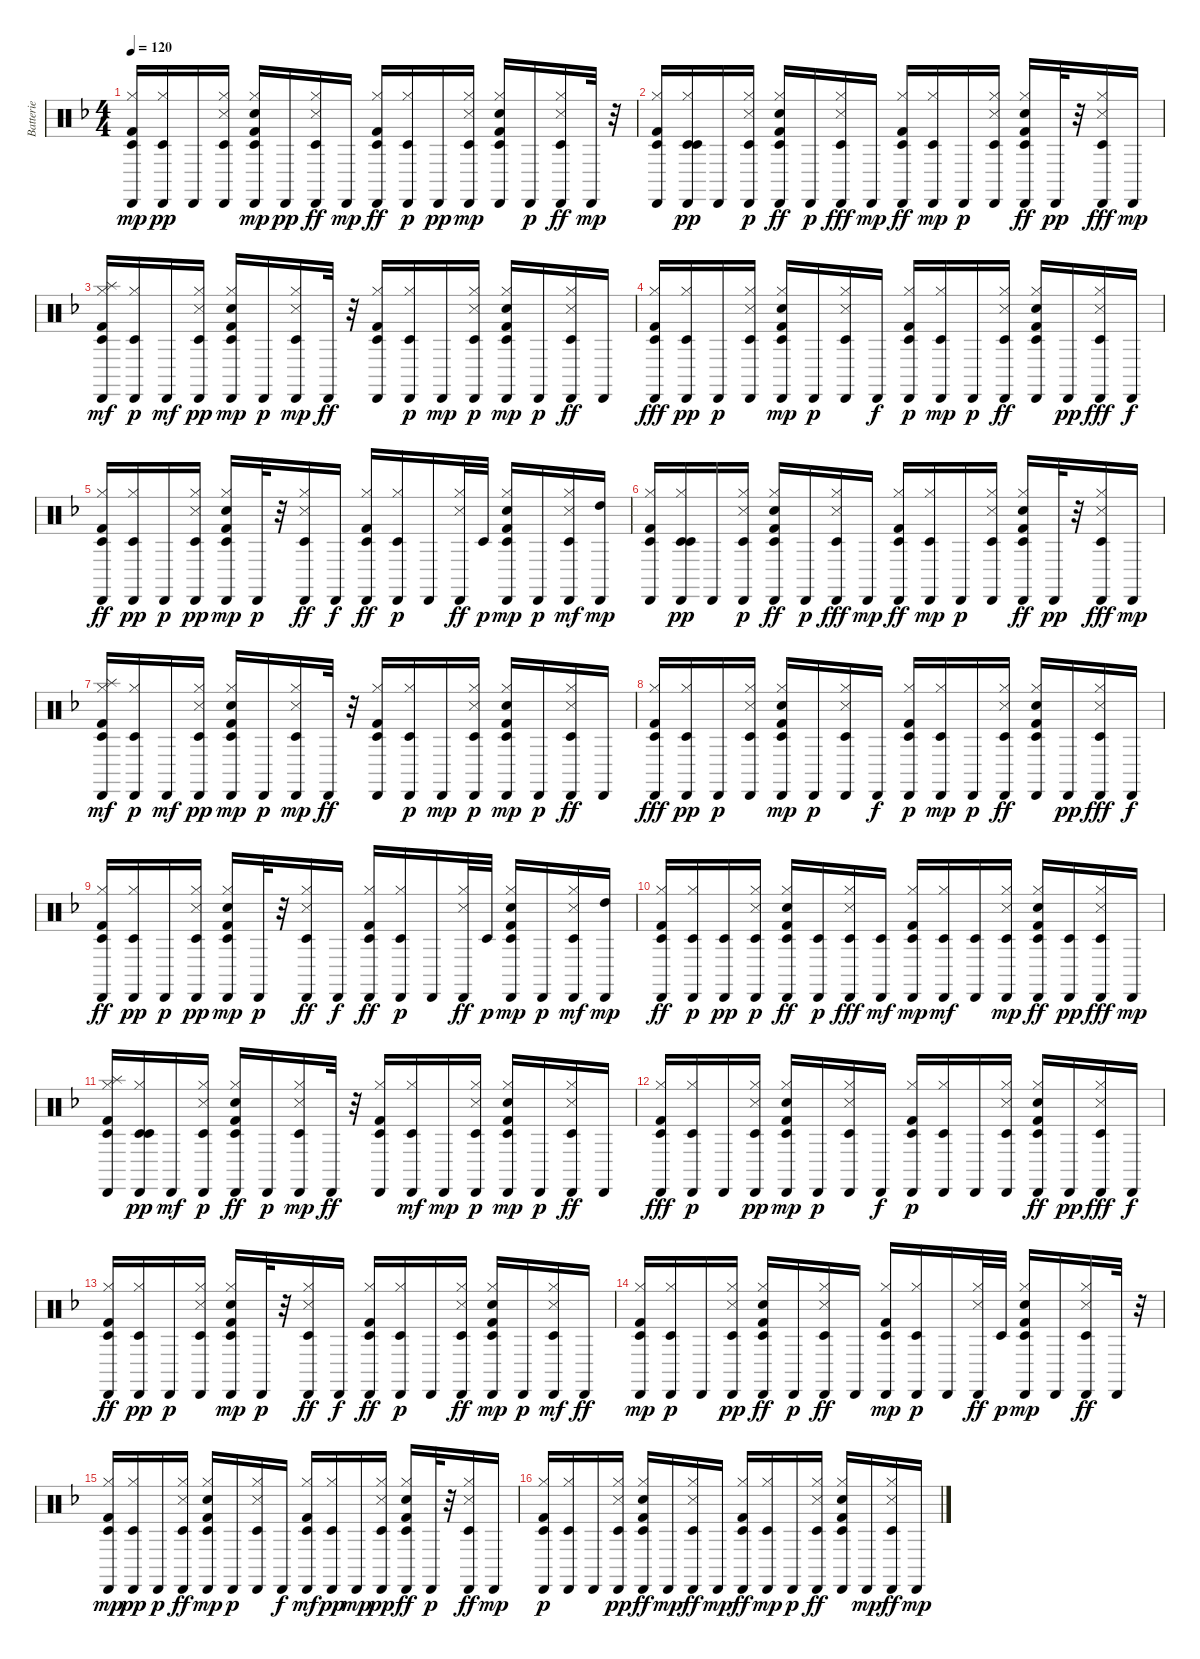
\track ("Batterie" "Batterie") {instrument percussion}
\staff {score}
\articulation defaults
\ts (4 4)
\tempo 120
\clef neutral
\ks f
("Kick (hit) 2" "Cabasa (hit)" "Hi-Hat (closed)" "Timbale low (hit)").16{dy mp} ("Hi-Hat (closed)" "Timbale low (hit)" "Cabasa (hit)").16{dy pp} "Cabasa (hit)".16 ("Snare (side stick) 3" "Cabasa (hit)" "Hi-Hat (closed)" "Timbale low (hit)").16 ("Timbale low (hit)" "Kick (hit) 2" "Hi-Hat (closed)" "Cabasa (hit)" "Hand Clap (hit)").16{dy mp} "Cabasa (hit)".16{dy pp} ("Cabasa (hit)" "Timbale low (hit)" "Snare (side stick) 3" "Hi-Hat (closed)").16{dy ff} "Cabasa (hit)".16{dy mp} ("Timbale low (hit)" "Kick (hit) 2" "Cabasa (hit)" "Hi-Hat (closed)").16{dy ff} ("Hi-Hat (closed)" "Timbale low (hit)" "Cabasa (hit)").16{dy p} "Cabasa (hit)".16{dy pp} ("Snare (side stick) 3" "Timbale low (hit)" "Cabasa (hit)" "Hi-Hat (closed)").16{dy mp} ("Timbale low (hit)" "Kick (hit) 2" "Hand Clap (hit)" "Cabasa (hit)" "Hi-Hat (closed)").16 "Cabasa (hit)".16{dy p} ("Cabasa (hit)" "Hi-Hat (closed)" "Snare (side stick) 3" "Timbale low (hit)").16{dy ff} "Cabasa (hit)".32{dy mp} r.32 |
("Kick (hit) 2" "Cabasa (hit)" "Hi-Hat (closed)" "Timbale low (hit)").16 ("Hi-Hat (closed)" "Cabasa (hit)" "Timbale low (hit)" "Timbale low (hit)").16{dy pp} "Cabasa (hit)".16 ("Cabasa (hit)" "Snare (side stick) 3" "Hi-Hat (closed)" "Timbale low (hit)").16{dy p} ("Timbale low (hit)" "Hi-Hat (closed)" "Kick (hit) 2" "Cabasa (hit)" "Hand Clap (hit)").16{dy ff} "Cabasa (hit)".16{dy p} ("Timbale low (hit)" "Cabasa (hit)" "Hi-Hat (closed)" "Snare (side stick) 3").16{dy fff} "Cabasa (hit)".16{dy mp} ("Timbale low (hit)" "Kick (hit) 2" "Cabasa (hit)" "Hi-Hat (closed)").16{dy ff} ("Hi-Hat (closed)" "Timbale low (hit)" "Cabasa (hit)").16{dy mp} "Cabasa (hit)".16{dy p} ("Hi-Hat (closed)" "Cabasa (hit)" "Snare (side stick) 3" "Timbale low (hit)").16 ("Hi-Hat (closed)" "Timbale low (hit)" "Kick (hit) 2" "Cabasa (hit)" "Hand Clap (hit)").16{dy ff} "Cabasa (hit)".32{dy pp} r.32 ("Cabasa (hit)" "Hi-Hat (closed)" "Timbale low (hit)" "Snare (side stick) 3").16{dy fff} "Cabasa (hit)".16{dy mp} |
("Hi-Hat (closed)" "Splash (hit)" "Kick (hit) 2" "Cabasa (hit)" "Timbale low (hit)").16{dy mf} ("Hi-Hat (closed)" "Cabasa (hit)" "Timbale low (hit)").16{dy p} "Cabasa (hit)".16{dy mf} ("Cabasa (hit)" "Snare (side stick) 3" "Hi-Hat (closed)" "Timbale low (hit)").16{dy pp} ("Hand Clap (hit)" "Hi-Hat (closed)" "Cabasa (hit)" "Kick (hit) 2" "Timbale low (hit)").16{dy mp} "Cabasa (hit)".16{dy p} ("Cabasa (hit)" "Snare (side stick) 3" "Hi-Hat (closed)" "Timbale low (hit)").16{dy mp} "Cabasa (hit)".32{dy ff} r.32 ("Cabasa (hit)" "Kick (hit) 2" "Timbale low (hit)" "Hi-Hat (closed)").16 ("Cabasa (hit)" "Hi-Hat (closed)" "Timbale low (hit)").16{dy p} "Cabasa (hit)".16{dy mp} ("Snare (side stick) 3" "Cabasa (hit)" "Timbale low (hit)" "Hi-Hat (closed)").16{dy p} ("Timbale low (hit)" "Cabasa (hit)" "Hand Clap (hit)" "Kick (hit) 2" "Hi-Hat (closed)").16{dy mp} "Cabasa (hit)".16{dy p} ("Timbale low (hit)" "Cabasa (hit)" "Snare (side stick) 3" "Hi-Hat (closed)").16{dy ff} "Cabasa (hit)".16 |
("Timbale low (hit)" "Cabasa (hit)" "Kick (hit) 2" "Hi-Hat (closed)").16{dy fff} ("Hi-Hat (closed)" "Timbale low (hit)" "Cabasa (hit)").16{dy pp} "Cabasa (hit)".16{dy p} ("Cabasa (hit)" "Snare (side stick) 3" "Timbale low (hit)" "Hi-Hat (closed)").16 ("Timbale low (hit)" "Kick (hit) 2" "Hi-Hat (closed)" "Cabasa (hit)" "Hand Clap (hit)").16{dy mp} "Cabasa (hit)".16{dy p} ("Timbale low (hit)" "Hi-Hat (closed)" "Cabasa (hit)" "Snare (side stick) 3").16 "Cabasa (hit)".16{dy f} ("Timbale low (hit)" "Kick (hit) 2" "Hi-Hat (closed)" "Cabasa (hit)").16{dy p} ("Timbale low (hit)" "Hi-Hat (closed)" "Cabasa (hit)").16{dy mp} "Cabasa (hit)".16{dy p} ("Cabasa (hit)" "Timbale low (hit)" "Hi-Hat (closed)" "Snare (side stick) 3").16{dy ff} ("Timbale low (hit)" "Hi-Hat (closed)" "Cabasa (hit)" "Kick (hit) 2" "Hand Clap (hit)").16 "Cabasa (hit)".16{dy pp} ("Cabasa (hit)" "Timbale low (hit)" "Hi-Hat (closed)" "Snare (side stick) 3").16{dy fff} "Cabasa (hit)".16{dy f} |
("Kick (hit) 2" "Cabasa (hit)" "Timbale low (hit)" "Hi-Hat (closed)").16{dy ff} ("Hi-Hat (closed)" "Timbale low (hit)" "Cabasa (hit)").16{dy pp} "Cabasa (hit)".16{dy p} ("Cabasa (hit)" "Snare (side stick) 3" "Hi-Hat (closed)" "Timbale low (hit)").16{dy pp} ("Kick (hit) 2" "Hi-Hat (closed)" "Timbale low (hit)" "Cabasa (hit)" "Hand Clap (hit)").16{dy mp} "Cabasa (hit)".32{dy p} r.32 ("Cabasa (hit)" "Snare (side stick) 3" "Timbale low (hit)" "Hi-Hat (closed)").16{dy ff} "Cabasa (hit)".16{dy f} ("Kick (hit) 2" "Cabasa (hit)" "Timbale low (hit)" "Hi-Hat (closed)").16{dy ff} ("Hi-Hat (closed)" "Cabasa (hit)" "Timbale low (hit)").16{dy p} "Cabasa (hit)".16 ("Cabasa (hit)" "Snare (side stick) 3" "Hi-Hat (closed)").32{dy ff} "Timbale low (hit)".32{dy p} ("Hi-Hat (closed)" "Kick (hit) 2" "Hand Clap (hit)" "Timbale low (hit)" "Cabasa (hit)").16{dy mp} "Cabasa (hit)".16{dy p} ("Cabasa (hit)" "Snare (side stick) 3" "Hi-Hat (closed)" "Timbale low (hit)").16{dy mf} ("Cabasa (hit)" "High Tom (hit)").16{dy mp} |
("Kick (hit) 2" "Cabasa (hit)" "Hi-Hat (closed)" "Timbale low (hit)").16 ("Hi-Hat (closed)" "Cabasa (hit)" "Timbale low (hit)" "Timbale low (hit)").16{dy pp} "Cabasa (hit)".16 ("Cabasa (hit)" "Snare (side stick) 3" "Hi-Hat (closed)" "Timbale low (hit)").16{dy p} ("Timbale low (hit)" "Hi-Hat (closed)" "Kick (hit) 2" "Cabasa (hit)" "Hand Clap (hit)").16{dy ff} "Cabasa (hit)".16{dy p} ("Timbale low (hit)" "Cabasa (hit)" "Hi-Hat (closed)" "Snare (side stick) 3").16{dy fff} "Cabasa (hit)".16{dy mp} ("Timbale low (hit)" "Kick (hit) 2" "Cabasa (hit)" "Hi-Hat (closed)").16{dy ff} ("Hi-Hat (closed)" "Timbale low (hit)" "Cabasa (hit)").16{dy mp} "Cabasa (hit)".16{dy p} ("Hi-Hat (closed)" "Cabasa (hit)" "Snare (side stick) 3" "Timbale low (hit)").16 ("Hi-Hat (closed)" "Timbale low (hit)" "Kick (hit) 2" "Cabasa (hit)" "Hand Clap (hit)").16{dy ff} "Cabasa (hit)".32{dy pp} r.32 ("Cabasa (hit)" "Hi-Hat (closed)" "Timbale low (hit)" "Snare (side stick) 3").16{dy fff} "Cabasa (hit)".16{dy mp} |
("Hi-Hat (closed)" "Splash (hit)" "Kick (hit) 2" "Cabasa (hit)" "Timbale low (hit)").16{dy mf} ("Hi-Hat (closed)" "Cabasa (hit)" "Timbale low (hit)").16{dy p} "Cabasa (hit)".16{dy mf} ("Cabasa (hit)" "Snare (side stick) 3" "Hi-Hat (closed)" "Timbale low (hit)").16{dy pp} ("Hand Clap (hit)" "Hi-Hat (closed)" "Cabasa (hit)" "Kick (hit) 2" "Timbale low (hit)").16{dy mp} "Cabasa (hit)".16{dy p} ("Cabasa (hit)" "Snare (side stick) 3" "Hi-Hat (closed)" "Timbale low (hit)").16{dy mp} "Cabasa (hit)".32{dy ff} r.32 ("Cabasa (hit)" "Kick (hit) 2" "Timbale low (hit)" "Hi-Hat (closed)").16 ("Cabasa (hit)" "Hi-Hat (closed)" "Timbale low (hit)").16{dy p} "Cabasa (hit)".16{dy mp} ("Snare (side stick) 3" "Cabasa (hit)" "Timbale low (hit)" "Hi-Hat (closed)").16{dy p} ("Timbale low (hit)" "Cabasa (hit)" "Hand Clap (hit)" "Kick (hit) 2" "Hi-Hat (closed)").16{dy mp} "Cabasa (hit)".16{dy p} ("Timbale low (hit)" "Cabasa (hit)" "Snare (side stick) 3" "Hi-Hat (closed)").16{dy ff} "Cabasa (hit)".16 |
("Timbale low (hit)" "Cabasa (hit)" "Kick (hit) 2" "Hi-Hat (closed)").16{dy fff} ("Hi-Hat (closed)" "Timbale low (hit)" "Cabasa (hit)").16{dy pp} "Cabasa (hit)".16{dy p} ("Cabasa (hit)" "Snare (side stick) 3" "Timbale low (hit)" "Hi-Hat (closed)").16 ("Timbale low (hit)" "Kick (hit) 2" "Hi-Hat (closed)" "Cabasa (hit)" "Hand Clap (hit)").16{dy mp} "Cabasa (hit)".16{dy p} ("Timbale low (hit)" "Hi-Hat (closed)" "Cabasa (hit)" "Snare (side stick) 3").16 "Cabasa (hit)".16{dy f} ("Timbale low (hit)" "Kick (hit) 2" "Hi-Hat (closed)" "Cabasa (hit)").16{dy p} ("Timbale low (hit)" "Hi-Hat (closed)" "Cabasa (hit)").16{dy mp} "Cabasa (hit)".16{dy p} ("Cabasa (hit)" "Timbale low (hit)" "Hi-Hat (closed)" "Snare (side stick) 3").16{dy ff} ("Timbale low (hit)" "Hi-Hat (closed)" "Cabasa (hit)" "Kick (hit) 2" "Hand Clap (hit)").16 "Cabasa (hit)".16{dy pp} ("Cabasa (hit)" "Timbale low (hit)" "Hi-Hat (closed)" "Snare (side stick) 3").16{dy fff} "Cabasa (hit)".16{dy f} |
("Kick (hit) 2" "Cabasa (hit)" "Timbale low (hit)" "Hi-Hat (closed)").16{dy ff} ("Hi-Hat (closed)" "Timbale low (hit)" "Cabasa (hit)").16{dy pp} "Cabasa (hit)".16{dy p} ("Cabasa (hit)" "Snare (side stick) 3" "Hi-Hat (closed)" "Timbale low (hit)").16{dy pp} ("Kick (hit) 2" "Hi-Hat (closed)" "Timbale low (hit)" "Cabasa (hit)" "Hand Clap (hit)").16{dy mp} "Cabasa (hit)".32{dy p} r.32 ("Cabasa (hit)" "Snare (side stick) 3" "Timbale low (hit)" "Hi-Hat (closed)").16{dy ff} "Cabasa (hit)".16{dy f} ("Kick (hit) 2" "Cabasa (hit)" "Timbale low (hit)" "Hi-Hat (closed)").16{dy ff} ("Hi-Hat (closed)" "Cabasa (hit)" "Timbale low (hit)").16{dy p} "Cabasa (hit)".16 ("Cabasa (hit)" "Snare (side stick) 3" "Hi-Hat (closed)").32{dy ff} "Timbale low (hit)".32{dy p} ("Hi-Hat (closed)" "Kick (hit) 2" "Hand Clap (hit)" "Timbale low (hit)" "Cabasa (hit)").16{dy mp} "Cabasa (hit)".16{dy p} ("Cabasa (hit)" "Snare (side stick) 3" "Hi-Hat (closed)" "Timbale low (hit)").16{dy mf} ("Cabasa (hit)" "High Tom (hit)").16{dy mp} |
("Timbale low (hit)" "Kick (hit) 2" "Cabasa (hit)" "Hi-Hat (closed)").16{dy ff} ("Timbale low (hit)" "Hi-Hat (closed)" "Cabasa (hit)").16{dy p} ("Timbale low (hit)" "Cabasa (hit)").16{dy pp} ("Timbale low (hit)" "Cabasa (hit)" "Snare (side stick) 3" "Hi-Hat (closed)").16{dy p} ("Hi-Hat (closed)" "Timbale low (hit)" "Kick (hit) 2" "Cabasa (hit)" "Hand Clap (hit)").16{dy ff} ("Timbale low (hit)" "Cabasa (hit)").16{dy p} ("Cabasa (hit)" "Hi-Hat (closed)" "Timbale low (hit)" "Snare (side stick) 3").16{dy fff} ("Cabasa (hit)" "Timbale low (hit)").16{dy mf} ("Kick (hit) 2" "Cabasa (hit)" "Hi-Hat (closed)" "Timbale low (hit)").16{dy mp} ("Hi-Hat (closed)" "Cabasa (hit)" "Timbale low (hit)").16{dy mf} ("Cabasa (hit)" "Timbale low (hit)").16 ("Hi-Hat (closed)" "Cabasa (hit)" "Snare (side stick) 3" "Timbale low (hit)").16{dy mp} ("Hi-Hat (closed)" "Kick (hit) 2" "Cabasa (hit)" "Hand Clap (hit)" "Timbale low (hit)").16{dy ff} ("Timbale low (hit)" "Cabasa (hit)").16{dy pp} ("Cabasa (hit)" "Hi-Hat (closed)" "Timbale low (hit)" "Snare (side stick) 3").16{dy fff} "Cabasa (hit)".16{dy mp} |
("Hi-Hat (closed)" "Splash (hit)" "Kick (hit) 2" "Cabasa (hit)" "Timbale low (hit)").16 ("Hi-Hat (closed)" "Cabasa (hit)" "Timbale low (hit)" "Timbale low (hit)").16{dy pp} "Cabasa (hit)".16{dy mf} ("Cabasa (hit)" "Snare (side stick) 3" "Hi-Hat (closed)" "Timbale low (hit)").16{dy p} ("Timbale low (hit)" "Hand Clap (hit)" "Hi-Hat (closed)" "Cabasa (hit)" "Kick (hit) 2").16{dy ff} "Cabasa (hit)".16{dy p} ("Timbale low (hit)" "Cabasa (hit)" "Snare (side stick) 3" "Hi-Hat (closed)").16{dy mp} "Cabasa (hit)".32{dy ff} r.32 ("Timbale low (hit)" "Cabasa (hit)" "Kick (hit) 2" "Hi-Hat (closed)").16 ("Timbale low (hit)" "Cabasa (hit)" "Hi-Hat (closed)").16{dy mf} "Cabasa (hit)".16{dy mp} ("Snare (side stick) 3" "Cabasa (hit)" "Timbale low (hit)" "Hi-Hat (closed)").16{dy p} ("Timbale low (hit)" "Cabasa (hit)" "Hand Clap (hit)" "Kick (hit) 2" "Hi-Hat (closed)").16{dy mp} "Cabasa (hit)".16{dy p} ("Cabasa (hit)" "Snare (side stick) 3" "Timbale low (hit)" "Hi-Hat (closed)").16{dy ff} "Cabasa (hit)".16 |
("Cabasa (hit)" "Kick (hit) 2" "Timbale low (hit)" "Hi-Hat (closed)").16{dy fff} ("Hi-Hat (closed)" "Cabasa (hit)" "Timbale low (hit)").16{dy p} "Cabasa (hit)".16 ("Cabasa (hit)" "Snare (side stick) 3" "Hi-Hat (closed)" "Timbale low (hit)").16{dy pp} ("Kick (hit) 2" "Hi-Hat (closed)" "Cabasa (hit)" "Hand Clap (hit)" "Timbale low (hit)").16{dy mp} "Cabasa (hit)".16{dy p} ("Hi-Hat (closed)" "Cabasa (hit)" "Snare (side stick) 3" "Timbale low (hit)").16 "Cabasa (hit)".16{dy f} ("Kick (hit) 2" "Timbale low (hit)" "Hi-Hat (closed)" "Cabasa (hit)").16{dy p} ("Hi-Hat (closed)" "Cabasa (hit)" "Timbale low (hit)").16 "Cabasa (hit)".16 ("Cabasa (hit)" "Hi-Hat (closed)" "Snare (side stick) 3" "Timbale low (hit)").16 ("Timbale low (hit)" "Hi-Hat (closed)" "Cabasa (hit)" "Kick (hit) 2" "Hand Clap (hit)").16{dy ff} "Cabasa (hit)".16{dy pp} ("Timbale low (hit)" "Cabasa (hit)" "Hi-Hat (closed)" "Snare (side stick) 3").16{dy fff} "Cabasa (hit)".16{dy f} |
("Kick (hit) 2" "Timbale low (hit)" "Cabasa (hit)" "Hi-Hat (closed)").16{dy ff} ("Hi-Hat (closed)" "Timbale low (hit)" "Cabasa (hit)").16{dy pp} "Cabasa (hit)".16{dy p} ("Cabasa (hit)" "Snare (side stick) 3" "Timbale low (hit)" "Hi-Hat (closed)").16 ("Timbale low (hit)" "Kick (hit) 2" "Hi-Hat (closed)" "Cabasa (hit)" "Hand Clap (hit)").16{dy mp} "Cabasa (hit)".32{dy p} r.32 ("Cabasa (hit)" "Timbale low (hit)" "Snare (side stick) 3" "Hi-Hat (closed)").16{dy ff} "Cabasa (hit)".16{dy f} ("Timbale low (hit)" "Kick (hit) 2" "Cabasa (hit)" "Hi-Hat (closed)").16{dy ff} ("Timbale low (hit)" "Hi-Hat (closed)" "Cabasa (hit)").16{dy p} "Cabasa (hit)".16 ("Timbale low (hit)" "Cabasa (hit)" "Snare (side stick) 3" "Hi-Hat (closed)").16{dy ff} ("Timbale low (hit)" "Hi-Hat (closed)" "Kick (hit) 2" "Hand Clap (hit)" "Cabasa (hit)").16{dy mp} "Cabasa (hit)".16{dy p} ("Cabasa (hit)" "Timbale low (hit)" "Snare (side stick) 3" "Hi-Hat (closed)").16{dy mf} "Cabasa (hit)".16{dy ff} |
("Cabasa (hit)" "Kick (hit) 2" "Timbale low (hit)" "Hi-Hat (closed)").16{dy mp} ("Hi-Hat (closed)" "Timbale low (hit)" "Cabasa (hit)").16{dy p} "Cabasa (hit)".16 ("Cabasa (hit)" "Snare (side stick) 3" "Hi-Hat (closed)" "Timbale low (hit)").16{dy pp} ("Hi-Hat (closed)" "Timbale low (hit)" "Cabasa (hit)" "Kick (hit) 2" "Hand Clap (hit)").16{dy ff} "Cabasa (hit)".16{dy p} ("Cabasa (hit)" "Timbale low (hit)" "Snare (side stick) 3" "Hi-Hat (closed)").16{dy ff} "Cabasa (hit)".16 ("Kick (hit) 2" "Cabasa (hit)" "Timbale low (hit)" "Hi-Hat (closed)").16{dy mp} ("Cabasa (hit)" "Hi-Hat (closed)" "Timbale low (hit)").16{dy p} "Cabasa (hit)".16 ("Cabasa (hit)" "Snare (side stick) 3" "Hi-Hat (closed)").32{dy ff} "Timbale low (hit)".32{dy p} ("Cabasa (hit)" "Kick (hit) 2" "Timbale low (hit)" "Hi-Hat (closed)" "Hand Clap (hit)").16{dy mp} "Cabasa (hit)".16 ("Cabasa (hit)" "Hi-Hat (closed)" "Snare (side stick) 3" "Timbale low (hit)").16{dy ff} "Cabasa (hit)".32 r.32 |
("Kick (hit) 2" "Cabasa (hit)" "Hi-Hat (closed)" "Timbale low (hit)").16{dy mp} ("Hi-Hat (closed)" "Cabasa (hit)" "Timbale low (hit)").16{dy pp} "Cabasa (hit)".16{dy p} ("Cabasa (hit)" "Snare (side stick) 3" "Timbale low (hit)" "Hi-Hat (closed)").16{dy ff} ("Kick (hit) 2" "Timbale low (hit)" "Hi-Hat (closed)" "Cabasa (hit)" "Hand Clap (hit)").16{dy mp} "Cabasa (hit)".16{dy p} ("Snare (side stick) 3" "Cabasa (hit)" "Hi-Hat (closed)" "Timbale low (hit)").16 "Cabasa (hit)".16{dy f} ("Kick (hit) 2" "Timbale low (hit)" "Cabasa (hit)" "Hi-Hat (closed)").16{dy mf} ("Hi-Hat (closed)" "Timbale low (hit)" "Cabasa (hit)").16{dy pp} "Cabasa (hit)".16{dy mp} ("Cabasa (hit)" "Snare (side stick) 3" "Hi-Hat (closed)" "Timbale low (hit)").16{dy pp} ("Timbale low (hit)" "Hi-Hat (closed)" "Kick (hit) 2" "Cabasa (hit)" "Hand Clap (hit)").16{dy ff} "Cabasa (hit)".32{dy p} r.32 ("Hi-Hat (closed)" "Cabasa (hit)" "Timbale low (hit)" "Snare (side stick) 3").16{dy ff} "Cabasa (hit)".16{dy mp} |
("Kick (hit) 2" "Cabasa (hit)" "Hi-Hat (closed)" "Timbale low (hit)").16{dy p} ("Hi-Hat (closed)" "Timbale low (hit)" "Cabasa (hit)").16 "Cabasa (hit)".16 ("Cabasa (hit)" "Snare (side stick) 3" "Hi-Hat (closed)" "Timbale low (hit)").16{dy pp} ("Timbale low (hit)" "Hi-Hat (closed)" "Cabasa (hit)" "Kick (hit) 2" "Hand Clap (hit)").16{dy ff} "Cabasa (hit)".16{dy mp} ("Timbale low (hit)" "Cabasa (hit)" "Snare (side stick) 3" "Hi-Hat (closed)").16{dy ff} "Cabasa (hit)".16{dy mp} ("Timbale low (hit)" "Cabasa (hit)" "Kick (hit) 2" "Hi-Hat (closed)").16{dy ff} ("Timbale low (hit)" "Hi-Hat (closed)" "Cabasa (hit)").16{dy mp} "Cabasa (hit)".16{dy p} ("Cabasa (hit)" "Snare (side stick) 3" "Timbale low (hit)" "Hi-Hat (closed)").16{dy ff} ("Timbale low (hit)" "Hi-Hat (closed)" "Kick (hit) 2" "Cabasa (hit)" "Hand Clap (hit)").16 "Cabasa (hit)".16{dy mp} ("Cabasa (hit)" "Timbale low (hit)" "Hi-Hat (closed)" "Snare (side stick) 3").16{dy ff} "Cabasa (hit)".16{dy mp}
